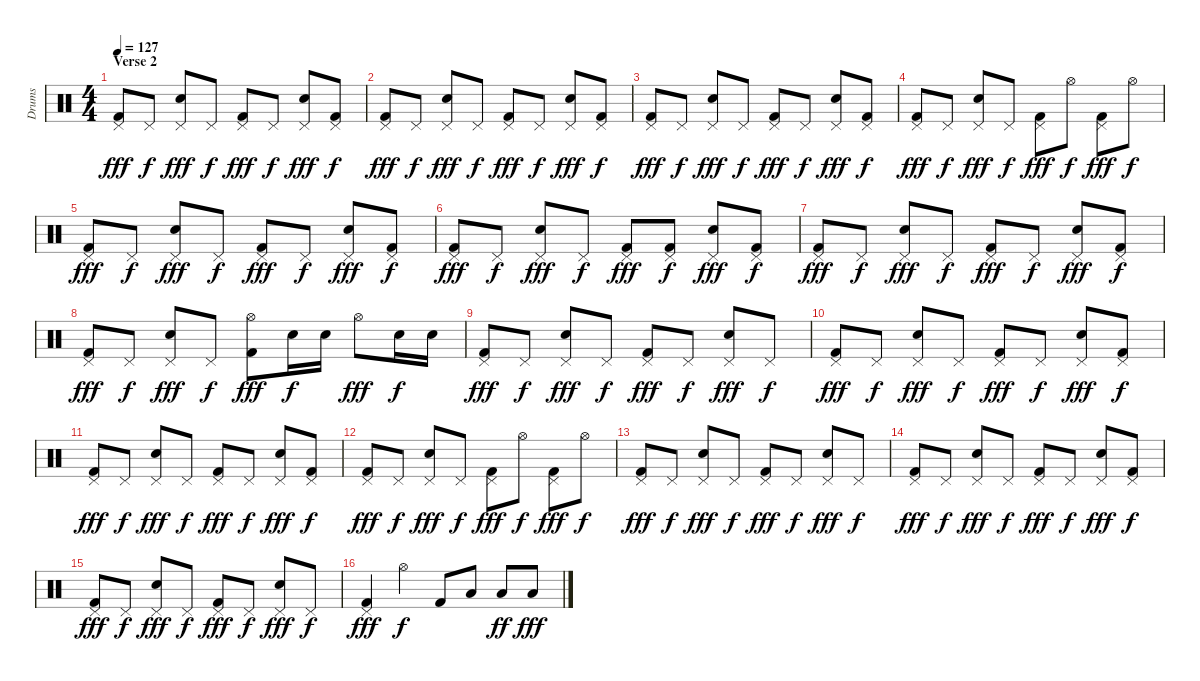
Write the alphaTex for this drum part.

\track ("Drums" "Drums") {instrument percussion}
\staff {score}
\articulation defaults
\ts (4 4)
\section ("" "Verse 2")
\tempo 127
\clef neutral
\ks c
("Pedal Hi-Hat (hit)" "Kick (hit) 2").8{dy fff} "Pedal Hi-Hat (hit)".8{dy f} ("Pedal Hi-Hat (hit)" "Snare (hit) 2").8{dy fff} "Pedal Hi-Hat (hit)".8{dy f} ("Pedal Hi-Hat (hit)" "Kick (hit) 2").8{dy fff} "Pedal Hi-Hat (hit)".8{dy f} ("Pedal Hi-Hat (hit)" "Snare (hit) 2").8{dy fff} ("Pedal Hi-Hat (hit)" "Kick (hit) 2").8{dy f} |
("Pedal Hi-Hat (hit)" "Kick (hit) 2").8{dy fff} "Pedal Hi-Hat (hit)".8{dy f} ("Pedal Hi-Hat (hit)" "Snare (hit) 2").8{dy fff} "Pedal Hi-Hat (hit)".8{dy f} ("Pedal Hi-Hat (hit)" "Kick (hit) 2").8{dy fff} "Pedal Hi-Hat (hit)".8{dy f} ("Pedal Hi-Hat (hit)" "Snare (hit) 2").8{dy fff} ("Pedal Hi-Hat (hit)" "Kick (hit) 2").8{dy f} |
("Pedal Hi-Hat (hit)" "Kick (hit) 2").8{dy fff} "Pedal Hi-Hat (hit)".8{dy f} ("Pedal Hi-Hat (hit)" "Snare (hit) 2").8{dy fff} "Pedal Hi-Hat (hit)".8{dy f} ("Pedal Hi-Hat (hit)" "Kick (hit) 2").8{dy fff} "Pedal Hi-Hat (hit)".8{dy f} ("Pedal Hi-Hat (hit)" "Snare (hit) 2").8{dy fff} ("Pedal Hi-Hat (hit)" "Kick (hit) 2").8{dy f} |
("Pedal Hi-Hat (hit)" "Kick (hit) 2").8{dy fff} "Pedal Hi-Hat (hit)".8{dy f} ("Pedal Hi-Hat (hit)" "Snare (hit) 2").8{dy fff} "Pedal Hi-Hat (hit)".8{dy f} ("Pedal Hi-Hat (hit)" "Kick (hit) 2").8{dy fff} "Hi-Hat (open)".8{dy f} ("Pedal Hi-Hat (hit)" "Kick (hit) 2").8{dy fff} "Hi-Hat (open)".8{dy f} |
("Pedal Hi-Hat (hit)" "Kick (hit) 2").8{dy fff} "Pedal Hi-Hat (hit)".8{dy f} ("Pedal Hi-Hat (hit)" "Snare (hit) 2").8{dy fff} "Pedal Hi-Hat (hit)".8{dy f} ("Pedal Hi-Hat (hit)" "Kick (hit) 2").8{dy fff} "Pedal Hi-Hat (hit)".8{dy f} ("Pedal Hi-Hat (hit)" "Snare (hit) 2").8{dy fff} ("Pedal Hi-Hat (hit)" "Kick (hit) 2").8{dy f} |
("Pedal Hi-Hat (hit)" "Kick (hit) 2").8{dy fff} "Pedal Hi-Hat (hit)".8{dy f} ("Pedal Hi-Hat (hit)" "Snare (hit) 2").8{dy fff} "Pedal Hi-Hat (hit)".8{dy f} ("Pedal Hi-Hat (hit)" "Kick (hit) 2").8{dy fff} ("Pedal Hi-Hat (hit)" "Kick (hit) 2").8{dy f} ("Pedal Hi-Hat (hit)" "Snare (hit) 2").8{dy fff} ("Pedal Hi-Hat (hit)" "Kick (hit) 2").8{dy f} |
("Pedal Hi-Hat (hit)" "Kick (hit) 2").8{dy fff} "Pedal Hi-Hat (hit)".8{dy f} ("Pedal Hi-Hat (hit)" "Snare (hit) 2").8{dy fff} "Pedal Hi-Hat (hit)".8{dy f} ("Pedal Hi-Hat (hit)" "Kick (hit) 2").8{dy fff} "Pedal Hi-Hat (hit)".8{dy f} ("Pedal Hi-Hat (hit)" "Snare (hit) 2").8{dy fff} ("Pedal Hi-Hat (hit)" "Kick (hit) 2").8{dy f} |
("Pedal Hi-Hat (hit)" "Kick (hit) 2").8{dy fff} "Pedal Hi-Hat (hit)".8{dy f} ("Pedal Hi-Hat (hit)" "Snare (hit) 2").8{dy fff} "Pedal Hi-Hat (hit)".8{dy f} ("Hi-Hat (open)" "Kick (hit) 2").8{dy fff} "Snare (hit) 2".16{dy f} "Snare (hit) 2".16 "Hi-Hat (open)".8{dy fff} "Snare (hit) 2".16{dy f} "Snare (hit) 2".16 |
("Pedal Hi-Hat (hit)" "Kick (hit) 2").8{dy fff} "Pedal Hi-Hat (hit)".8{dy f} ("Pedal Hi-Hat (hit)" "Snare (hit) 2").8{dy fff} "Pedal Hi-Hat (hit)".8{dy f} ("Pedal Hi-Hat (hit)" "Kick (hit) 2").8{dy fff} "Pedal Hi-Hat (hit)".8{dy f} ("Pedal Hi-Hat (hit)" "Snare (hit) 2").8{dy fff} "Pedal Hi-Hat (hit)".8{dy f} |
("Pedal Hi-Hat (hit)" "Kick (hit) 2").8{dy fff} "Pedal Hi-Hat (hit)".8{dy f} ("Pedal Hi-Hat (hit)" "Snare (hit) 2").8{dy fff} "Pedal Hi-Hat (hit)".8{dy f} ("Pedal Hi-Hat (hit)" "Kick (hit) 2").8{dy fff} "Pedal Hi-Hat (hit)".8{dy f} ("Pedal Hi-Hat (hit)" "Snare (hit) 2").8{dy fff} ("Pedal Hi-Hat (hit)" "Kick (hit) 2").8{dy f} |
("Pedal Hi-Hat (hit)" "Kick (hit) 2").8{dy fff} "Pedal Hi-Hat (hit)".8{dy f} ("Pedal Hi-Hat (hit)" "Snare (hit) 2").8{dy fff} "Pedal Hi-Hat (hit)".8{dy f} ("Pedal Hi-Hat (hit)" "Kick (hit) 2").8{dy fff} "Pedal Hi-Hat (hit)".8{dy f} ("Pedal Hi-Hat (hit)" "Snare (hit) 2").8{dy fff} ("Pedal Hi-Hat (hit)" "Kick (hit) 2").8{dy f} |
("Pedal Hi-Hat (hit)" "Kick (hit) 2").8{dy fff} "Pedal Hi-Hat (hit)".8{dy f} ("Pedal Hi-Hat (hit)" "Snare (hit) 2").8{dy fff} "Pedal Hi-Hat (hit)".8{dy f} ("Pedal Hi-Hat (hit)" "Kick (hit) 2").8{dy fff} "Hi-Hat (open)".8{dy f} ("Pedal Hi-Hat (hit)" "Kick (hit) 2").8{dy fff} "Hi-Hat (open)".8{dy f} |
("Pedal Hi-Hat (hit)" "Kick (hit) 2").8{dy fff} "Pedal Hi-Hat (hit)".8{dy f} ("Pedal Hi-Hat (hit)" "Snare (hit) 2").8{dy fff} "Pedal Hi-Hat (hit)".8{dy f} ("Pedal Hi-Hat (hit)" "Kick (hit) 2").8{dy fff} "Pedal Hi-Hat (hit)".8{dy f} ("Pedal Hi-Hat (hit)" "Snare (hit) 2").8{dy fff} "Pedal Hi-Hat (hit)".8{dy f} |
("Pedal Hi-Hat (hit)" "Kick (hit) 2").8{dy fff} "Pedal Hi-Hat (hit)".8{dy f} ("Pedal Hi-Hat (hit)" "Snare (hit) 2").8{dy fff} "Pedal Hi-Hat (hit)".8{dy f} ("Pedal Hi-Hat (hit)" "Kick (hit) 2").8{dy fff} "Pedal Hi-Hat (hit)".8{dy f} ("Pedal Hi-Hat (hit)" "Snare (hit) 2").8{dy fff} ("Pedal Hi-Hat (hit)" "Kick (hit) 2").8{dy f} |
("Pedal Hi-Hat (hit)" "Kick (hit) 2").8{dy fff} "Pedal Hi-Hat (hit)".8{dy f} ("Pedal Hi-Hat (hit)" "Snare (hit) 2").8{dy fff} "Pedal Hi-Hat (hit)".8{dy f} ("Pedal Hi-Hat (hit)" "Kick (hit) 2").8{dy fff} "Pedal Hi-Hat (hit)".8{dy f} ("Pedal Hi-Hat (hit)" "Snare (hit) 2").8{dy fff} "Pedal Hi-Hat (hit)".8{dy f} |
("Pedal Hi-Hat (hit)" "Kick (hit) 2").4{dy fff} "Hi-Hat (open)".4{dy f} "Kick (hit) 2".8 "Low Tom (hit)".8 "Low Tom (hit)".8{dy ff} "Low Tom (hit)".8{dy fff}
